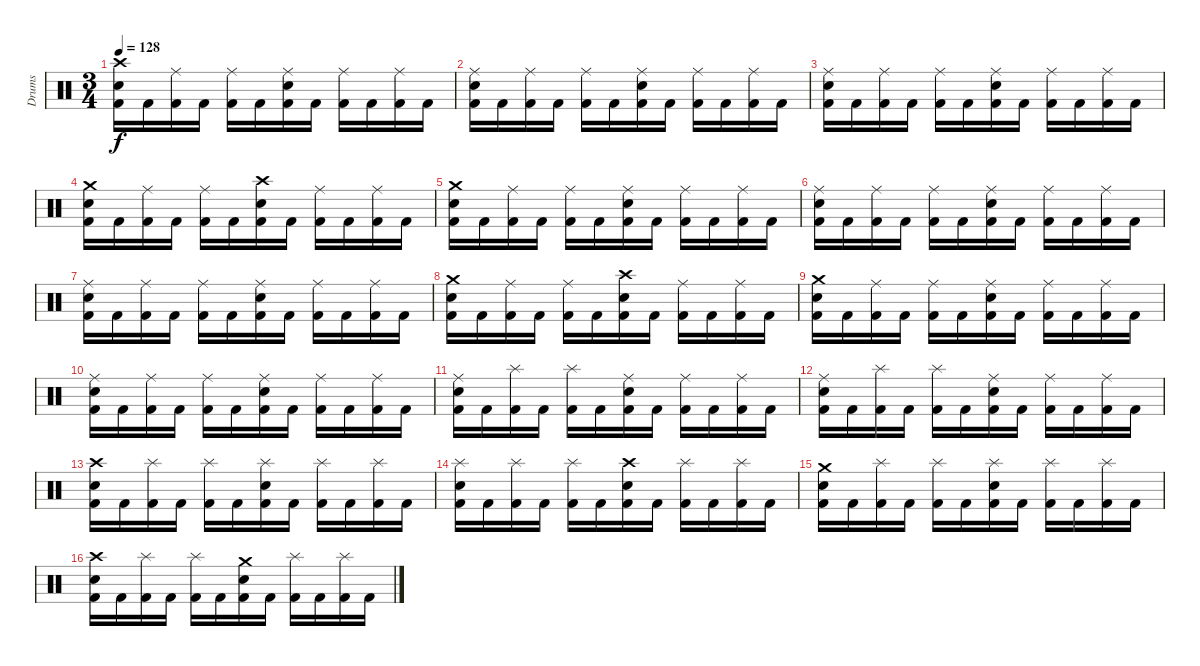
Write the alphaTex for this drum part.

\track ("Drums" "Drums") {instrument percussion}
\staff {score}
\articulation defaults
\ts (3 4)
\tempo 128
\clef neutral
\ks c
("Crash high (hit)" "Snare (hit) 2" "Kick (hit) 2").16{dy f} "Kick (hit) 2".16 ("Ride (middle)" "Kick (hit) 2").16 "Kick (hit) 2".16 ("Ride (middle)" "Kick (hit) 2").16 "Kick (hit) 2".16 ("Ride (middle)" "Snare (hit) 2" "Kick (hit) 2").16 "Kick (hit) 2".16 ("Ride (middle)" "Kick (hit) 2").16 "Kick (hit) 2".16 ("Ride (middle)" "Kick (hit) 2").16 "Kick (hit) 2".16 |
("Ride (middle)" "Snare (hit) 2" "Kick (hit) 2").16 "Kick (hit) 2".16 ("Ride (middle)" "Kick (hit) 2").16 "Kick (hit) 2".16 ("Ride (middle)" "Kick (hit) 2").16 "Kick (hit) 2".16 ("Ride (middle)" "Snare (hit) 2" "Kick (hit) 2").16 "Kick (hit) 2".16 ("Ride (middle)" "Kick (hit) 2").16 "Kick (hit) 2".16 ("Ride (middle)" "Kick (hit) 2").16 "Kick (hit) 2".16 |
("Ride (middle)" "Snare (hit) 2" "Kick (hit) 2").16 "Kick (hit) 2".16 ("Ride (middle)" "Kick (hit) 2").16 "Kick (hit) 2".16 ("Ride (middle)" "Kick (hit) 2").16 "Kick (hit) 2".16 ("Ride (middle)" "Snare (hit) 2" "Kick (hit) 2").16 "Kick (hit) 2".16 ("Ride (middle)" "Kick (hit) 2").16 "Kick (hit) 2".16 ("Ride (middle)" "Kick (hit) 2").16 "Kick (hit) 2".16 |
("Crash medium (hit)" "Snare (hit) 2" "Kick (hit) 2").16 "Kick (hit) 2".16 ("Ride (middle)" "Kick (hit) 2").16 "Kick (hit) 2".16 ("Ride (middle)" "Kick (hit) 2").16 "Kick (hit) 2".16 ("Crash high (hit)" "Snare (hit) 2" "Kick (hit) 2").16 "Kick (hit) 2".16 ("Ride (middle)" "Kick (hit) 2").16 "Kick (hit) 2".16 ("Ride (middle)" "Kick (hit) 2").16 "Kick (hit) 2".16 |
("Crash medium (hit)" "Snare (hit) 2" "Kick (hit) 2").16 "Kick (hit) 2".16 ("Ride (middle)" "Kick (hit) 2").16 "Kick (hit) 2".16 ("Ride (middle)" "Kick (hit) 2").16 "Kick (hit) 2".16 ("Ride (middle)" "Snare (hit) 2" "Kick (hit) 2").16 "Kick (hit) 2".16 ("Ride (middle)" "Kick (hit) 2").16 "Kick (hit) 2".16 ("Ride (middle)" "Kick (hit) 2").16 "Kick (hit) 2".16 |
("Ride (middle)" "Snare (hit) 2" "Kick (hit) 2").16 "Kick (hit) 2".16 ("Ride (middle)" "Kick (hit) 2").16 "Kick (hit) 2".16 ("Ride (middle)" "Kick (hit) 2").16 "Kick (hit) 2".16 ("Ride (middle)" "Snare (hit) 2" "Kick (hit) 2").16 "Kick (hit) 2".16 ("Ride (middle)" "Kick (hit) 2").16 "Kick (hit) 2".16 ("Ride (middle)" "Kick (hit) 2").16 "Kick (hit) 2".16 |
("Ride (middle)" "Snare (hit) 2" "Kick (hit) 2").16 "Kick (hit) 2".16 ("Ride (middle)" "Kick (hit) 2").16 "Kick (hit) 2".16 ("Ride (middle)" "Kick (hit) 2").16 "Kick (hit) 2".16 ("Ride (middle)" "Snare (hit) 2" "Kick (hit) 2").16 "Kick (hit) 2".16 ("Ride (middle)" "Kick (hit) 2").16 "Kick (hit) 2".16 ("Ride (middle)" "Kick (hit) 2").16 "Kick (hit) 2".16 |
("Crash medium (hit)" "Snare (hit) 2" "Kick (hit) 2").16 "Kick (hit) 2".16 ("Ride (middle)" "Kick (hit) 2").16 "Kick (hit) 2".16 ("Ride (middle)" "Kick (hit) 2").16 "Kick (hit) 2".16 ("Crash high (hit)" "Snare (hit) 2" "Kick (hit) 2").16 "Kick (hit) 2".16 ("Ride (middle)" "Kick (hit) 2").16 "Kick (hit) 2".16 ("Ride (middle)" "Kick (hit) 2").16 "Kick (hit) 2".16 |
("Crash medium (hit)" "Snare (hit) 2" "Kick (hit) 2").16 "Kick (hit) 2".16 ("Ride (middle)" "Kick (hit) 2").16 "Kick (hit) 2".16 ("Ride (middle)" "Kick (hit) 2").16 "Kick (hit) 2".16 ("Ride (middle)" "Snare (hit) 2" "Kick (hit) 2").16 "Kick (hit) 2".16 ("Ride (middle)" "Kick (hit) 2").16 "Kick (hit) 2".16 ("Ride (middle)" "Kick (hit) 2").16 "Kick (hit) 2".16 |
("Ride (middle)" "Snare (hit) 2" "Kick (hit) 2").16 "Kick (hit) 2".16 ("Ride (middle)" "Kick (hit) 2").16 "Kick (hit) 2".16 ("Ride (middle)" "Kick (hit) 2").16 "Kick (hit) 2".16 ("Ride (middle)" "Snare (hit) 2" "Kick (hit) 2").16 "Kick (hit) 2".16 ("Ride (middle)" "Kick (hit) 2").16 "Kick (hit) 2".16 ("Ride (middle)" "Kick (hit) 2").16 "Kick (hit) 2".16 |
("Ride (middle)" "Snare (hit) 2" "Kick (hit) 2").16 "Kick (hit) 2".16 ("Splash (hit)" "Kick (hit) 2").16 "Kick (hit) 2".16 ("Splash (hit)" "Kick (hit) 2").16 "Kick (hit) 2".16 ("Ride (middle)" "Snare (hit) 2" "Kick (hit) 2").16 "Kick (hit) 2".16 ("Ride (middle)" "Kick (hit) 2").16 "Kick (hit) 2".16 ("Ride (middle)" "Kick (hit) 2").16 "Kick (hit) 2".16 |
("Ride (middle)" "Snare (hit) 2" "Kick (hit) 2").16 "Kick (hit) 2".16 ("Splash (hit)" "Kick (hit) 2").16 "Kick (hit) 2".16 ("Splash (hit)" "Kick (hit) 2").16 "Kick (hit) 2".16 ("Ride (middle)" "Snare (hit) 2" "Kick (hit) 2").16 "Kick (hit) 2".16 ("Ride (middle)" "Kick (hit) 2").16 "Kick (hit) 2".16 ("Ride (middle)" "Kick (hit) 2").16 "Kick (hit) 2".16 |
("Crash high (hit)" "Snare (hit) 2" "Kick (hit) 2").16 "Kick (hit) 2".16 ("Splash (hit)" "Kick (hit) 2").16 "Kick (hit) 2".16 ("Splash (hit)" "Kick (hit) 2").16 "Kick (hit) 2".16 ("Splash (hit)" "Snare (hit) 2" "Kick (hit) 2").16 "Kick (hit) 2".16 ("Splash (hit)" "Kick (hit) 2").16 "Kick (hit) 2".16 ("Splash (hit)" "Kick (hit) 2").16 "Kick (hit) 2".16 |
("Splash (hit)" "Snare (hit) 2" "Kick (hit) 2").16 "Kick (hit) 2".16 ("Splash (hit)" "Kick (hit) 2").16 "Kick (hit) 2".16 ("Splash (hit)" "Kick (hit) 2").16 "Kick (hit) 2".16 ("Crash high (hit)" "Snare (hit) 2" "Kick (hit) 2").16 "Kick (hit) 2".16 ("Splash (hit)" "Kick (hit) 2").16 "Kick (hit) 2".16 ("Splash (hit)" "Kick (hit) 2").16 "Kick (hit) 2".16 |
("Crash medium (hit)" "Snare (hit) 2" "Kick (hit) 2").16 "Kick (hit) 2".16 ("Splash (hit)" "Kick (hit) 2").16 "Kick (hit) 2".16 ("Splash (hit)" "Kick (hit) 2").16 "Kick (hit) 2".16 ("Splash (hit)" "Snare (hit) 2" "Kick (hit) 2").16 "Kick (hit) 2".16 ("Splash (hit)" "Kick (hit) 2").16 "Kick (hit) 2".16 ("Splash (hit)" "Kick (hit) 2").16 "Kick (hit) 2".16 |
("Crash high (hit)" "Snare (hit) 2" "Kick (hit) 2").16 "Kick (hit) 2".16 ("Splash (hit)" "Kick (hit) 2").16 "Kick (hit) 2".16 ("Splash (hit)" "Kick (hit) 2").16 "Kick (hit) 2".16 ("Crash medium (hit)" "Snare (hit) 2" "Kick (hit) 2").16 "Kick (hit) 2".16 ("Splash (hit)" "Kick (hit) 2").16 "Kick (hit) 2".16 ("Splash (hit)" "Kick (hit) 2").16 "Kick (hit) 2".16
